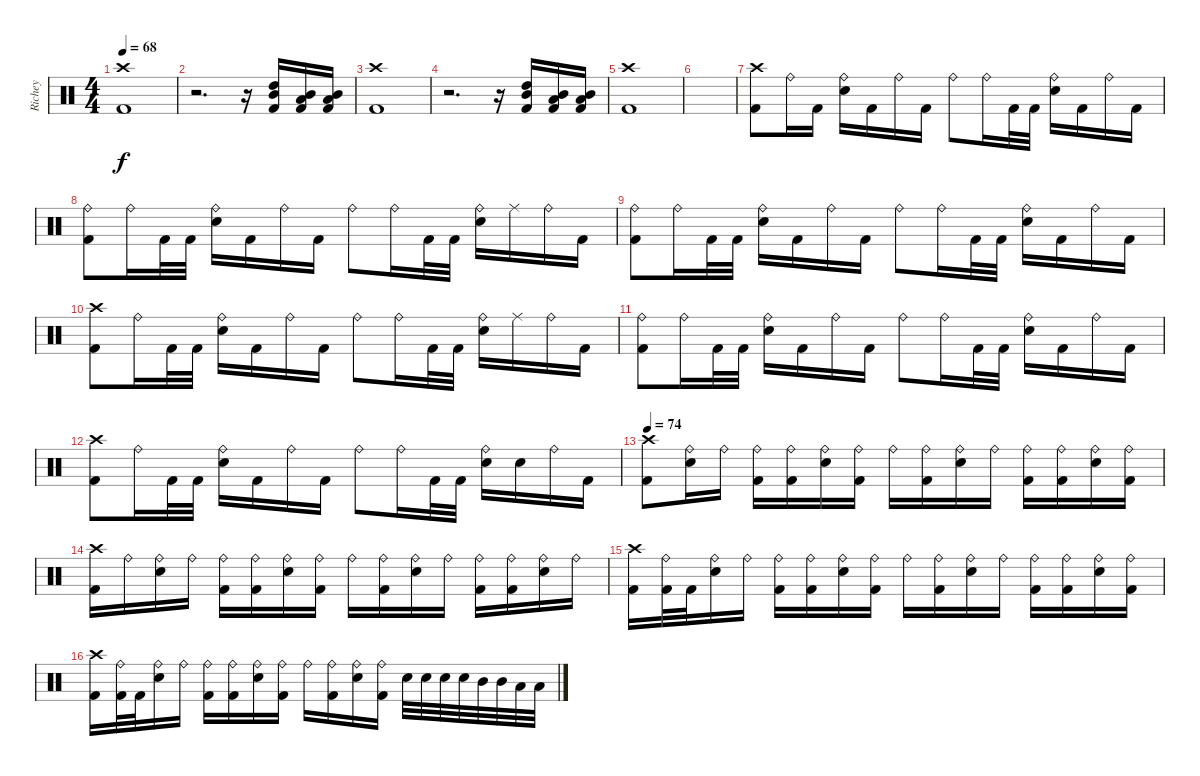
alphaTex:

\track ("Richey" "Richey") {instrument percussion}
\staff {score}
\articulation defaults
\ts (4 4)
\tempo 68
\clef neutral
\ks c
("Crash high (hit)" "Kick (hit) 2").1{dy f} |
r.2{d} r.16 ("High Tom (hit)" "Mid Tom (hit)" "Kick (hit) 2").16 ("Mid Tom (hit)" "Low Tom (hit)" "Kick (hit) 2").16 ("Mid Tom (hit)" "Low Tom (hit)" "Kick (hit) 2").16 |
("Crash high (hit)" "Kick (hit) 2").1 |
r.2{d} r.16 ("High Tom (hit)" "Mid Tom (hit)" "Kick (hit) 2").16 ("Mid Tom (hit)" "Low Tom (hit)" "Kick (hit) 2").16 ("Mid Tom (hit)" "Low Tom (hit)" "Kick (hit) 2").16 |
("Crash high (hit)" "Kick (hit) 2").1 |
|
("Crash high (hit)" "Kick (hit) 2").8 "Ride (bell)".16 "Kick (hit) 2".16 ("Ride (bell)" "Snare (hit) 2").16 "Kick (hit) 2".16 "Ride (bell)".16 "Kick (hit) 2".16 "Ride (bell)".8 "Ride (bell)".16 "Kick (hit) 2".32 "Kick (hit) 2".32 ("Ride (bell)" "Snare (hit) 2").16 "Kick (hit) 2".16 "Ride (bell)".16 "Kick (hit) 2".16 |
("Ride (bell)" "Kick (hit) 2").8 "Ride (bell)".16 "Kick (hit) 2".32 "Kick (hit) 2".32 ("Ride (bell)" "Snare (hit) 2").16 "Kick (hit) 2".16 "Ride (bell)".16 "Kick (hit) 2".16 "Ride (bell)".8 "Ride (bell)".16 "Kick (hit) 2".32 "Kick (hit) 2".32 ("Ride (bell)" "Snare (hit) 2").16 "Ride (middle)".16 "Ride (bell)".16 "Kick (hit) 2".16 |
("Ride (bell)" "Kick (hit) 2").8 "Ride (bell)".16 "Kick (hit) 2".32 "Kick (hit) 2".32 ("Ride (bell)" "Snare (hit) 2").16 "Kick (hit) 2".16 "Ride (bell)".16 "Kick (hit) 2".16 "Ride (bell)".8 "Ride (bell)".16 "Kick (hit) 2".32 "Kick (hit) 2".32 ("Ride (bell)" "Snare (hit) 2").16 "Kick (hit) 2".16 "Ride (bell)".16 "Kick (hit) 2".16 |
("Crash high (hit)" "Kick (hit) 2").8 "Ride (bell)".16 "Kick (hit) 2".32 "Kick (hit) 2".32 ("Ride (bell)" "Snare (hit) 2").16 "Kick (hit) 2".16 "Ride (bell)".16 "Kick (hit) 2".16 "Ride (bell)".8 "Ride (bell)".16 "Kick (hit) 2".32 "Kick (hit) 2".32 ("Ride (bell)" "Snare (hit) 2").16 "Ride (middle)".16 "Ride (bell)".16 "Kick (hit) 2".16 |
("Ride (bell)" "Kick (hit) 2").8 "Ride (bell)".16 "Kick (hit) 2".32 "Kick (hit) 2".32 ("Ride (bell)" "Snare (hit) 2").16 "Kick (hit) 2".16 "Ride (bell)".16 "Kick (hit) 2".16 "Ride (bell)".8 "Ride (bell)".16 "Kick (hit) 2".32 "Kick (hit) 2".32 ("Ride (bell)" "Snare (hit) 2").16 "Kick (hit) 2".16 "Ride (bell)".16 "Kick (hit) 2".16 |
("Crash high (hit)" "Kick (hit) 2").8 "Ride (bell)".16 "Kick (hit) 2".32 "Kick (hit) 2".32 ("Ride (bell)" "Snare (hit) 2").16 "Kick (hit) 2".16 "Ride (bell)".16 "Kick (hit) 2".16 "Ride (bell)".8 "Ride (bell)".16 "Kick (hit) 2".32 "Kick (hit) 2".32 ("Ride (bell)" "Snare (hit) 2").16 "Snare (hit) 2".16 "Ride (bell)".16 "Kick (hit) 2".16 |
\tempo 74
("Crash high (hit)" "Kick (hit) 2").8 ("Ride (bell)" "Snare (hit) 2").16 "Ride (bell)".16 ("Ride (bell)" "Kick (hit) 2").16 ("Ride (bell)" "Kick (hit) 2").16 ("Ride (bell)" "Snare (hit) 2").16 ("Ride (bell)" "Kick (hit) 2").16 "Ride (bell)".16 ("Ride (bell)" "Kick (hit) 2").16 ("Ride (bell)" "Snare (hit) 2").16 "Ride (bell)".16 ("Ride (bell)" "Kick (hit) 2").16 ("Ride (bell)" "Kick (hit) 2").16 ("Ride (bell)" "Snare (hit) 2").16 ("Ride (bell)" "Kick (hit) 2").16 |
("Crash high (hit)" "Kick (hit) 2").16 "Ride (bell)".16 ("Ride (bell)" "Snare (hit) 2").16 "Ride (bell)".16 ("Ride (bell)" "Kick (hit) 2").16 ("Ride (bell)" "Kick (hit) 2").16 ("Ride (bell)" "Snare (hit) 2").16 ("Ride (bell)" "Kick (hit) 2").16 "Ride (bell)".16 ("Ride (bell)" "Kick (hit) 2").16 ("Ride (bell)" "Snare (hit) 2").16 "Ride (bell)".16 ("Ride (bell)" "Kick (hit) 2").16 ("Ride (bell)" "Kick (hit) 2").16 ("Ride (bell)" "Snare (hit) 2").16 "Ride (bell)".16 |
("Crash high (hit)" "Kick (hit) 2").16 ("Ride (bell)" "Kick (hit) 2").32 "Kick (hit) 2".32 ("Ride (bell)" "Snare (hit) 2").16 "Ride (bell)".16 ("Ride (bell)" "Kick (hit) 2").16 ("Ride (bell)" "Kick (hit) 2").16 ("Ride (bell)" "Snare (hit) 2").16 ("Ride (bell)" "Kick (hit) 2").16 "Ride (bell)".16 ("Ride (bell)" "Kick (hit) 2").16 ("Ride (bell)" "Snare (hit) 2").16 "Ride (bell)".16 ("Ride (bell)" "Kick (hit) 2").16 ("Ride (bell)" "Kick (hit) 2").16 ("Ride (bell)" "Snare (hit) 2").16 ("Ride (bell)" "Kick (hit) 2").16 |
("Crash high (hit)" "Kick (hit) 2").16 ("Ride (bell)" "Kick (hit) 2").32 "Kick (hit) 2".32 ("Ride (bell)" "Snare (hit) 2").16 "Ride (bell)".16 ("Ride (bell)" "Kick (hit) 2").16 ("Ride (bell)" "Kick (hit) 2").16 ("Ride (bell)" "Snare (hit) 2").16 ("Ride (bell)" "Kick (hit) 2").16 "Ride (bell)".16 ("Ride (bell)" "Kick (hit) 2").16 ("Ride (bell)" "Snare (hit) 2").16 ("Ride (bell)" "Kick (hit) 2").16 "Snare (hit) 2".32 "Snare (hit) 2".32 "Snare (hit) 2".32 "Snare (hit) 2".32 "Mid Tom (hit)".32 "Mid Tom (hit)".32 "Low Tom (hit)".32 "Low Tom (hit)".32
